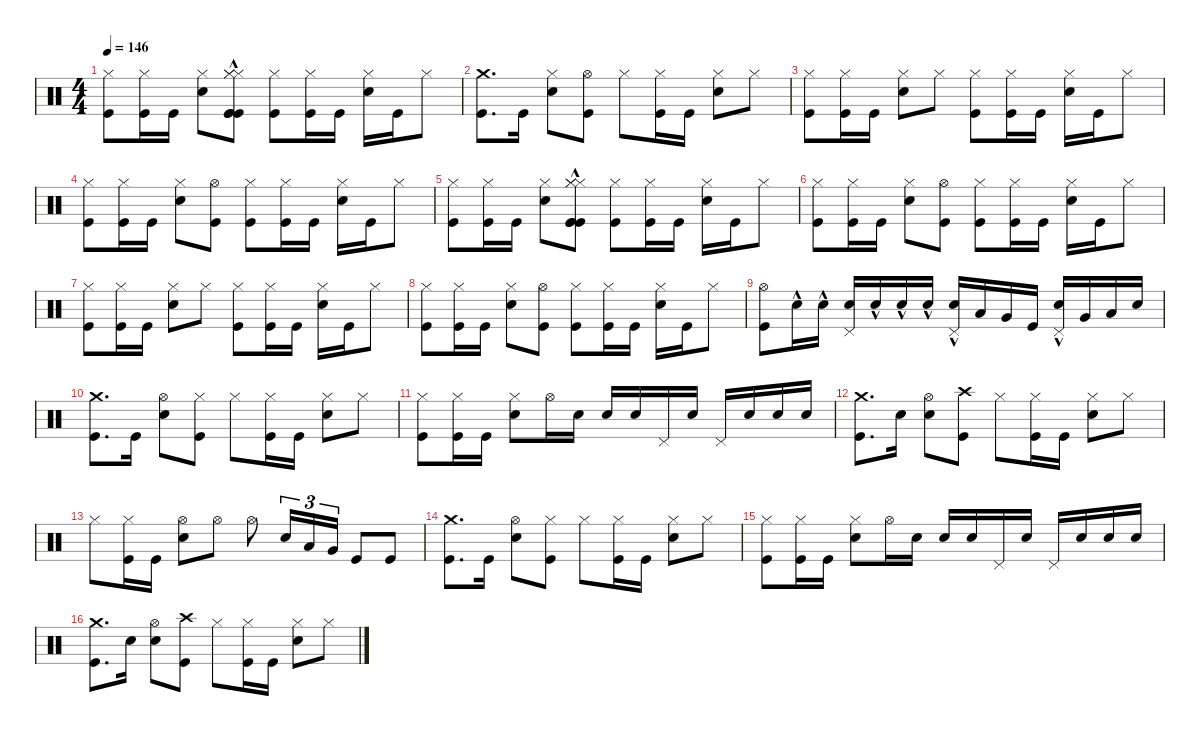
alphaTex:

\defaultSystemsLayout 4
\hideDynamics
\bracketExtendMode nobrackets
\singleTrackTrackNamePolicy hidden
\multiTrackTrackNamePolicy hidden
\firstSystemTrackNameMode fullname
\firstSystemTrackNameOrientation horizontal
\otherSystemsTrackNameOrientation horizontal
\track ("Drums" "drm.") {instrument percussion}
\staff {score}
\articulation defaults
\ts (4 4)
\tempo 146
\clef neutral
\ks c
("Hi-Hat (closed)" "Kick (hit)").8{dy f beam Down} ("Hi-Hat (closed)" "Kick (hit)").16{beam Down} "Kick (hit)".16{beam Down} ("Hi-Hat (closed)" "Snare (hit) 2").8{beam Down} ("Hi-Hat (closed)"{hac} "Hi-Hat (closed)"{hac} "Hi-Hat (closed)"{hac} "Kick (hit)"{hac} "Kick (hit)"{hac} "Kick (hit)"{hac}).8{beam Down} ("Hi-Hat (closed)" "Kick (hit)").8{beam Down} ("Hi-Hat (closed)" "Kick (hit)").16{beam Down} "Kick (hit)".16{beam Down} ("Hi-Hat (closed)" "Snare (hit) 2").16{beam Down} "Kick (hit)".16{beam Down} "Hi-Hat (closed)".8{beam Down} |
("Crash medium (hit)" "Kick (hit)").8{d beam Down} "Kick (hit)".16{beam Down} ("Hi-Hat (closed)" "Snare (hit) 2").8{beam Down} ("Hi-Hat (open)" "Kick (hit)").8{beam Down} "Hi-Hat (closed)".8{beam Down} ("Hi-Hat (closed)" "Kick (hit)").16{beam Down} "Kick (hit)".16{beam Down} ("Hi-Hat (closed)" "Snare (hit) 2").8{beam Down} "Hi-Hat (closed)".8{beam Down} |
("Hi-Hat (closed)" "Kick (hit)").8{beam Down} ("Hi-Hat (closed)" "Kick (hit)").16{beam Down} "Kick (hit)".16{beam Down} ("Hi-Hat (closed)" "Snare (hit) 2").8{beam Down} "Hi-Hat (closed)".8{beam Down} ("Hi-Hat (closed)" "Kick (hit)").8{beam Down} ("Hi-Hat (closed)" "Kick (hit)").16{beam Down} "Kick (hit)".16{beam Down} ("Hi-Hat (closed)" "Snare (hit) 2").16{beam Down} "Kick (hit)".16{beam Down} "Hi-Hat (closed)".8{beam Down} |
("Hi-Hat (closed)" "Kick (hit)").8{beam Down} ("Hi-Hat (closed)" "Kick (hit)").16{beam Down} "Kick (hit)".16{beam Down} ("Hi-Hat (closed)" "Snare (hit) 2").8{beam Down} ("Hi-Hat (open)" "Kick (hit)").8{beam Down} ("Hi-Hat (closed)" "Kick (hit)").8{beam Down} ("Hi-Hat (closed)" "Kick (hit)").16{beam Down} "Kick (hit)".16{beam Down} ("Hi-Hat (closed)" "Snare (hit) 2").16{beam Down} "Kick (hit)".16{beam Down} "Hi-Hat (closed)".8{beam Down} |
("Hi-Hat (closed)" "Kick (hit)").8{beam Down} ("Hi-Hat (closed)" "Kick (hit)").16{beam Down} "Kick (hit)".16{beam Down} ("Hi-Hat (closed)" "Snare (hit) 2").8{beam Down} ("Hi-Hat (closed)"{hac} "Hi-Hat (closed)"{hac} "Hi-Hat (closed)"{hac} "Kick (hit)"{hac} "Kick (hit)"{hac} "Kick (hit)"{hac}).8{beam Down} ("Hi-Hat (closed)" "Kick (hit)").8{beam Down} ("Hi-Hat (closed)" "Kick (hit)").16{beam Down} "Kick (hit)".16{beam Down} ("Hi-Hat (closed)" "Snare (hit) 2").16{beam Down} "Kick (hit)".16{beam Down} "Hi-Hat (closed)".8{beam Down} |
("Hi-Hat (closed)" "Kick (hit)").8{beam Down} ("Hi-Hat (closed)" "Kick (hit)").16{beam Down} "Kick (hit)".16{beam Down} ("Hi-Hat (closed)" "Snare (hit) 2").8{beam Down} ("Hi-Hat (open)" "Kick (hit)").8{beam Down} ("Hi-Hat (closed)" "Kick (hit)").8{beam Down} ("Hi-Hat (closed)" "Kick (hit)").16{beam Down} "Kick (hit)".16{beam Down} ("Hi-Hat (closed)" "Snare (hit) 2").16{beam Down} "Kick (hit)".16{beam Down} "Hi-Hat (closed)".8{beam Down} |
("Hi-Hat (closed)" "Kick (hit)").8{beam Down} ("Hi-Hat (closed)" "Kick (hit)").16{beam Down} "Kick (hit)".16{beam Down} ("Hi-Hat (closed)" "Snare (hit) 2").8{beam Down} "Hi-Hat (closed)".8{beam Down} ("Hi-Hat (closed)" "Kick (hit)").8{beam Down} ("Hi-Hat (closed)" "Kick (hit)").16{beam Down} "Kick (hit)".16{beam Down} ("Hi-Hat (closed)" "Snare (hit) 2").16{beam Down} "Kick (hit)".16{beam Down} "Hi-Hat (closed)".8{beam Down} |
("Hi-Hat (closed)" "Kick (hit)").8{beam Down} ("Hi-Hat (closed)" "Kick (hit)").16{beam Down} "Kick (hit)".16{beam Down} ("Hi-Hat (closed)" "Snare (hit) 2").8{beam Down} ("Hi-Hat (open)" "Kick (hit)").8{beam Down} ("Hi-Hat (closed)" "Kick (hit)").8{beam Down} ("Hi-Hat (closed)" "Kick (hit)").16{beam Down} "Kick (hit)".16{beam Down} ("Hi-Hat (closed)" "Snare (hit) 2").16{beam Down} "Kick (hit)".16{beam Down} "Hi-Hat (closed)".8{beam Down} |
("Hi-Hat (open)" "Kick (hit)").8{beam Down} "Snare (hit) 2"{hac}.16{beam Down} "Snare (hit) 2"{hac}.16{beam Down} ("Pedal Hi-Hat (hit)" "Snare (hit) 2").16{beam Up} "Snare (hit) 2"{hac}.16{beam Up} "Snare (hit) 2"{hac}.16{beam Up} "Snare (hit) 2"{hac}.16{beam Up} ("Pedal Hi-Hat (hit)" "Snare (hit) 2"{hac}).16{beam Up} "Low Tom (hit)".16{beam Up} "Very Low Tom (hit)".16{beam Up} "Kick (hit)".16{beam Up} ("Pedal Hi-Hat (hit)" "Snare (hit) 2"{hac}).16{beam Up} "Very Low Tom (hit)".16{beam Up} "Low Floor Tom (hit)".16{beam Up} "Snare (hit) 2".16{beam Up} |
("Crash medium (hit)" "Kick (hit)").8{d beam Down} "Kick (hit)".16{beam Down} ("Hi-Hat (open)" "Snare (hit) 2").8{beam Down} ("Hi-Hat (closed)" "Kick (hit)").8{beam Down} "Hi-Hat (closed)".8{beam Down} ("Hi-Hat (closed)" "Kick (hit)").16{beam Down} "Kick (hit)".16{beam Down} ("Hi-Hat (closed)" "Snare (hit) 2").8{beam Down} "Hi-Hat (closed)".8{beam Down} |
("Hi-Hat (closed)" "Kick (hit)").8{beam Down} ("Hi-Hat (closed)" "Kick (hit)").16{beam Down} "Kick (hit)".16{beam Down} ("Hi-Hat (closed)" "Snare (hit) 2").8{beam Down} "Hi-Hat (open)".16{beam Down} "Snare (hit) 2".16{beam Down} "Snare (hit) 2".16{beam Up} "Snare (hit) 2".16{beam Up} "Pedal Hi-Hat (hit)".16{beam Up} "Snare (hit) 2".16{beam Up} "Pedal Hi-Hat (hit)".16{beam Up} "Snare (hit) 2".16{beam Up} "Snare (hit) 2".16{beam Up} "Snare (hit) 2".16{beam Up} |
("Crash medium (hit)" "Kick (hit)").8{d beam Down} "Snare (hit) 2".16{beam Down} ("Hi-Hat (open)" "Snare (hit) 2").8{beam Down} ("Crash high (hit)" "Kick (hit)").8{beam Down} "Hi-Hat (closed)".8{beam Down} ("Hi-Hat (closed)" "Kick (hit)").16{beam Down} "Kick (hit)".16{beam Down} ("Hi-Hat (closed)" "Snare (hit) 2").8{beam Down} "Hi-Hat (closed)".8{beam Down} |
"Hi-Hat (closed)".8{beam Down} ("Hi-Hat (closed)" "Kick (hit)").16{beam Down} "Kick (hit)".16{beam Down} ("Hi-Hat (open)" "Snare (hit) 2").8{beam Down} "Hi-Hat (open)".8{beam Down} "Hi-Hat (open)".8{beam Down} "Snare (hit) 2".16{tu (3 2) beam Up} "Low Tom (hit)".16{tu (3 2) beam Up} "Very Low Tom (hit)".16{tu (3 2) beam Up} "Kick (hit)".8{beam Up} "Kick (hit)".8{beam Up} |
("Crash medium (hit)" "Kick (hit)").8{d beam Down} "Kick (hit)".16{beam Down} ("Hi-Hat (open)" "Snare (hit) 2").8{beam Down} ("Hi-Hat (closed)" "Kick (hit)").8{beam Down} "Hi-Hat (closed)".8{beam Down} ("Hi-Hat (closed)" "Kick (hit)").16{beam Down} "Kick (hit)".16{beam Down} ("Hi-Hat (closed)" "Snare (hit) 2").8{beam Down} "Hi-Hat (closed)".8{beam Down} |
("Hi-Hat (closed)" "Kick (hit)").8{beam Down} ("Hi-Hat (closed)" "Kick (hit)").16{beam Down} "Kick (hit)".16{beam Down} ("Hi-Hat (closed)" "Snare (hit) 2").8{beam Down} "Hi-Hat (open)".16{beam Down} "Snare (hit) 2".16{beam Down} "Snare (hit) 2".16{beam Up} "Snare (hit) 2".16{beam Up} "Pedal Hi-Hat (hit)".16{beam Up} "Snare (hit) 2".16{beam Up} "Pedal Hi-Hat (hit)".16{beam Up} "Snare (hit) 2".16{beam Up} "Snare (hit) 2".16{beam Up} "Snare (hit) 2".16{beam Up} |
("Crash medium (hit)" "Kick (hit)").8{d beam Down} "Snare (hit) 2".16{beam Down} ("Hi-Hat (open)" "Snare (hit) 2").8{beam Down} ("Crash high (hit)" "Kick (hit)").8{beam Down} "Hi-Hat (closed)".8{beam Down} ("Hi-Hat (closed)" "Kick (hit)").16{beam Down} "Kick (hit)".16{beam Down} ("Hi-Hat (closed)" "Snare (hit) 2").8{beam Down} "Hi-Hat (closed)".8{beam Down}
